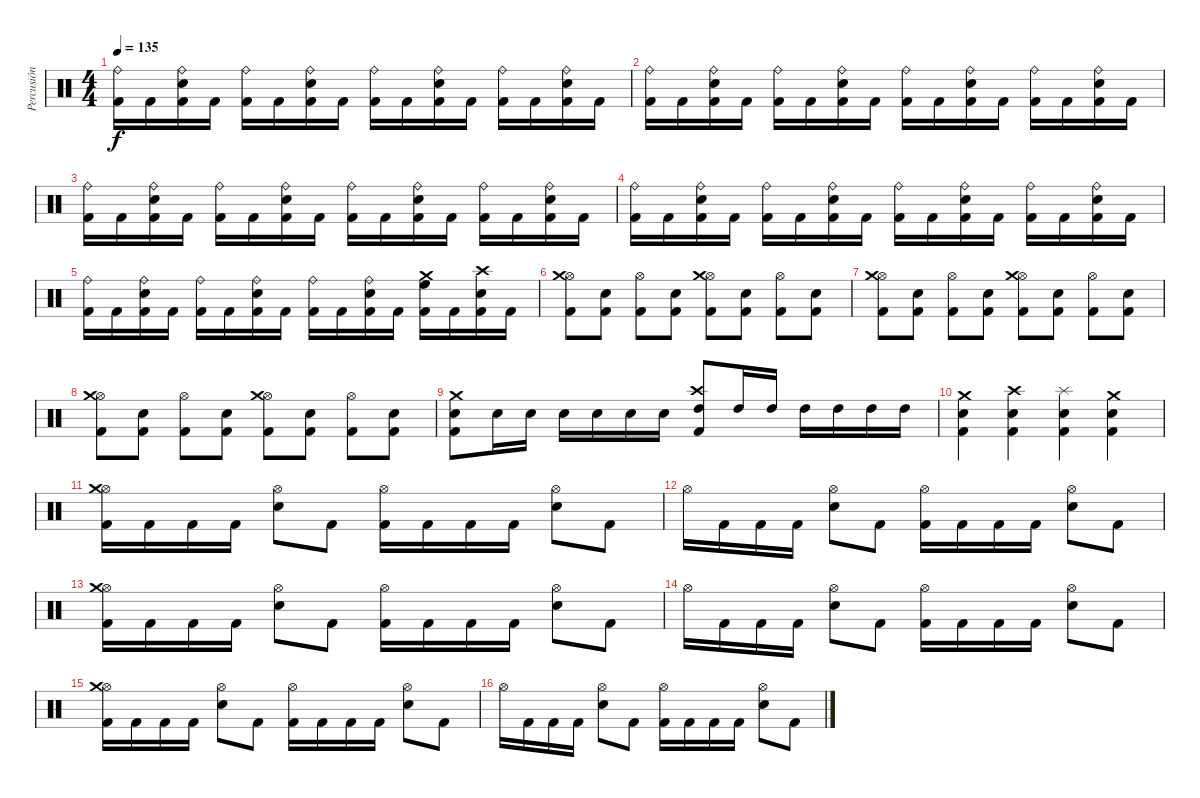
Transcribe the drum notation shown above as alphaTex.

\track ("Percusión" "Percusión") {instrument percussion}
\staff {score}
\articulation defaults
\ts (4 4)
\tempo 135
\clef neutral
\ks c
("Ride (bell)" "Kick (hit) 2").16{dy f} "Kick (hit) 2".16 ("Ride (bell)" "Snare (hit) 2" "Kick (hit) 2").16 "Kick (hit) 2".16 ("Ride (bell)" "Kick (hit) 2").16 "Kick (hit) 2".16 ("Ride (bell)" "Snare (hit) 2" "Kick (hit) 2").16 "Kick (hit) 2".16 ("Ride (bell)" "Kick (hit) 2").16 "Kick (hit) 2".16 ("Ride (bell)" "Snare (hit) 2" "Kick (hit) 2").16 "Kick (hit) 2".16 ("Ride (bell)" "Kick (hit) 2").16 "Kick (hit) 2".16 ("Ride (bell)" "Snare (hit) 2" "Kick (hit) 2").16 "Kick (hit) 2".16 |
("Ride (bell)" "Kick (hit) 2").16 "Kick (hit) 2".16 ("Ride (bell)" "Snare (hit) 2" "Kick (hit) 2").16 "Kick (hit) 2".16 ("Ride (bell)" "Kick (hit) 2").16 "Kick (hit) 2".16 ("Ride (bell)" "Snare (hit) 2" "Kick (hit) 2").16 "Kick (hit) 2".16 ("Ride (bell)" "Kick (hit) 2").16 "Kick (hit) 2".16 ("Ride (bell)" "Snare (hit) 2" "Kick (hit) 2").16 "Kick (hit) 2".16 ("Ride (bell)" "Kick (hit) 2").16 "Kick (hit) 2".16 ("Ride (bell)" "Snare (hit) 2" "Kick (hit) 2").16 "Kick (hit) 2".16 |
("Ride (bell)" "Kick (hit) 2").16 "Kick (hit) 2".16 ("Ride (bell)" "Snare (hit) 2" "Kick (hit) 2").16 "Kick (hit) 2".16 ("Ride (bell)" "Kick (hit) 2").16 "Kick (hit) 2".16 ("Ride (bell)" "Snare (hit) 2" "Kick (hit) 2").16 "Kick (hit) 2".16 ("Ride (bell)" "Kick (hit) 2").16 "Kick (hit) 2".16 ("Ride (bell)" "Snare (hit) 2" "Kick (hit) 2").16 "Kick (hit) 2".16 ("Ride (bell)" "Kick (hit) 2").16 "Kick (hit) 2".16 ("Ride (bell)" "Snare (hit) 2" "Kick (hit) 2").16 "Kick (hit) 2".16 |
("Ride (bell)" "Kick (hit) 2").16 "Kick (hit) 2".16 ("Ride (bell)" "Snare (hit) 2" "Kick (hit) 2").16 "Kick (hit) 2".16 ("Ride (bell)" "Kick (hit) 2").16 "Kick (hit) 2".16 ("Ride (bell)" "Snare (hit) 2" "Kick (hit) 2").16 "Kick (hit) 2".16 ("Ride (bell)" "Kick (hit) 2").16 "Kick (hit) 2".16 ("Ride (bell)" "Snare (hit) 2" "Kick (hit) 2").16 "Kick (hit) 2".16 ("Ride (bell)" "Kick (hit) 2").16 "Kick (hit) 2".16 ("Ride (bell)" "Snare (hit) 2" "Kick (hit) 2").16 "Kick (hit) 2".16 |
("Ride (bell)" "Kick (hit) 2").16 "Kick (hit) 2".16 ("Ride (bell)" "Snare (hit) 2" "Kick (hit) 2").16 "Kick (hit) 2".16 ("Ride (bell)" "Kick (hit) 2").16 "Kick (hit) 2".16 ("Ride (bell)" "Snare (hit) 2" "Kick (hit) 2").16 "Kick (hit) 2".16 ("Ride (bell)" "Kick (hit) 2").16 "Kick (hit) 2".16 ("Ride (bell)" "Snare (hit) 2" "Kick (hit) 2").16 "Kick (hit) 2".16 ("Crash medium (hit)" "High Floor Tom (hit)" "Kick (hit) 2").16 "Kick (hit) 2".16 ("Crash high (hit)" "Snare (hit) 2" "Kick (hit) 2").16 "Kick (hit) 2".16 |
("Hi-Hat (open)" "Crash medium (hit)" "Kick (hit) 2").8 ("Snare (hit) 2" "Kick (hit) 2").8 ("Hi-Hat (open)" "Kick (hit) 2").8 ("Snare (hit) 2" "Kick (hit) 2").8 ("Hi-Hat (open)" "Crash medium (hit)" "Kick (hit) 2").8 ("Snare (hit) 2" "Kick (hit) 2").8 ("Hi-Hat (open)" "Kick (hit) 2").8 ("Snare (hit) 2" "Kick (hit) 2").8 |
("Hi-Hat (open)" "Crash medium (hit)" "Kick (hit) 2").8 ("Snare (hit) 2" "Kick (hit) 2").8 ("Hi-Hat (open)" "Kick (hit) 2").8 ("Snare (hit) 2" "Kick (hit) 2").8 ("Hi-Hat (open)" "Crash medium (hit)" "Kick (hit) 2").8 ("Snare (hit) 2" "Kick (hit) 2").8 ("Hi-Hat (open)" "Kick (hit) 2").8 ("Snare (hit) 2" "Kick (hit) 2").8 |
("Hi-Hat (open)" "Crash medium (hit)" "Kick (hit) 2").8 ("Snare (hit) 2" "Kick (hit) 2").8 ("Hi-Hat (open)" "Kick (hit) 2").8 ("Snare (hit) 2" "Kick (hit) 2").8 ("Hi-Hat (open)" "Crash medium (hit)" "Kick (hit) 2").8 ("Snare (hit) 2" "Kick (hit) 2").8 ("Hi-Hat (open)" "Kick (hit) 2").8 ("Snare (hit) 2" "Kick (hit) 2").8 |
("Crash medium (hit)" "Snare (hit) 2" "Kick (hit) 2").8 "Snare (hit) 2".16 "Snare (hit) 2".16 "Snare (hit) 2".16 "Snare (hit) 2".16 "Snare (hit) 2".16 "Snare (hit) 2".16 ("Crash high (hit)" "High Tom (hit)" "Kick (hit) 2").8 "High Tom (hit)".16 "High Tom (hit)".16 "High Tom (hit)".16 "High Tom (hit)".16 "High Tom (hit)".16 "High Tom (hit)".16 |
("Crash medium (hit)" "Snare (hit) 2" "Kick (hit) 2").4 ("Crash high (hit)" "Snare (hit) 2" "Kick (hit) 2").4 ("Splash (hit)" "Snare (hit) 2" "Kick (hit) 2").4 ("Crash medium (hit)" "Snare (hit) 2" "Kick (hit) 2").4 |
("Hi-Hat (open)" "Crash medium (hit)" "Kick (hit) 2").16 "Kick (hit) 2".16 "Kick (hit) 2".16 "Kick (hit) 2".16 ("Hi-Hat (open)" "Electric Snare (hit)").8 "Kick (hit) 2".8 ("Hi-Hat (open)" "Kick (hit) 2").16 "Kick (hit) 2".16 "Kick (hit) 2".16 "Kick (hit) 2".16 ("Hi-Hat (open)" "Electric Snare (hit)").8 "Kick (hit) 2".8 |
"Hi-Hat (open)".16 "Kick (hit) 2".16 "Kick (hit) 2".16 "Kick (hit) 2".16 ("Hi-Hat (open)" "Electric Snare (hit)").8 "Kick (hit) 2".8 ("Hi-Hat (open)" "Kick (hit) 2").16 "Kick (hit) 2".16 "Kick (hit) 2".16 "Kick (hit) 2".16 ("Hi-Hat (open)" "Electric Snare (hit)").8 "Kick (hit) 2".8 |
("Hi-Hat (open)" "Crash medium (hit)" "Kick (hit) 2").16 "Kick (hit) 2".16 "Kick (hit) 2".16 "Kick (hit) 2".16 ("Hi-Hat (open)" "Electric Snare (hit)").8 "Kick (hit) 2".8 ("Hi-Hat (open)" "Kick (hit) 2").16 "Kick (hit) 2".16 "Kick (hit) 2".16 "Kick (hit) 2".16 ("Hi-Hat (open)" "Electric Snare (hit)").8 "Kick (hit) 2".8 |
"Hi-Hat (open)".16 "Kick (hit) 2".16 "Kick (hit) 2".16 "Kick (hit) 2".16 ("Hi-Hat (open)" "Electric Snare (hit)").8 "Kick (hit) 2".8 ("Hi-Hat (open)" "Kick (hit) 2").16 "Kick (hit) 2".16 "Kick (hit) 2".16 "Kick (hit) 2".16 ("Hi-Hat (open)" "Electric Snare (hit)").8 "Kick (hit) 2".8 |
("Hi-Hat (open)" "Crash medium (hit)" "Kick (hit) 2").16 "Kick (hit) 2".16 "Kick (hit) 2".16 "Kick (hit) 2".16 ("Hi-Hat (open)" "Electric Snare (hit)").8 "Kick (hit) 2".8 ("Hi-Hat (open)" "Kick (hit) 2").16 "Kick (hit) 2".16 "Kick (hit) 2".16 "Kick (hit) 2".16 ("Hi-Hat (open)" "Electric Snare (hit)").8 "Kick (hit) 2".8 |
"Hi-Hat (open)".16 "Kick (hit) 2".16 "Kick (hit) 2".16 "Kick (hit) 2".16 ("Hi-Hat (open)" "Electric Snare (hit)").8 "Kick (hit) 2".8 ("Hi-Hat (open)" "Kick (hit) 2").16 "Kick (hit) 2".16 "Kick (hit) 2".16 "Kick (hit) 2".16 ("Hi-Hat (open)" "Electric Snare (hit)").8 "Kick (hit) 2".8
